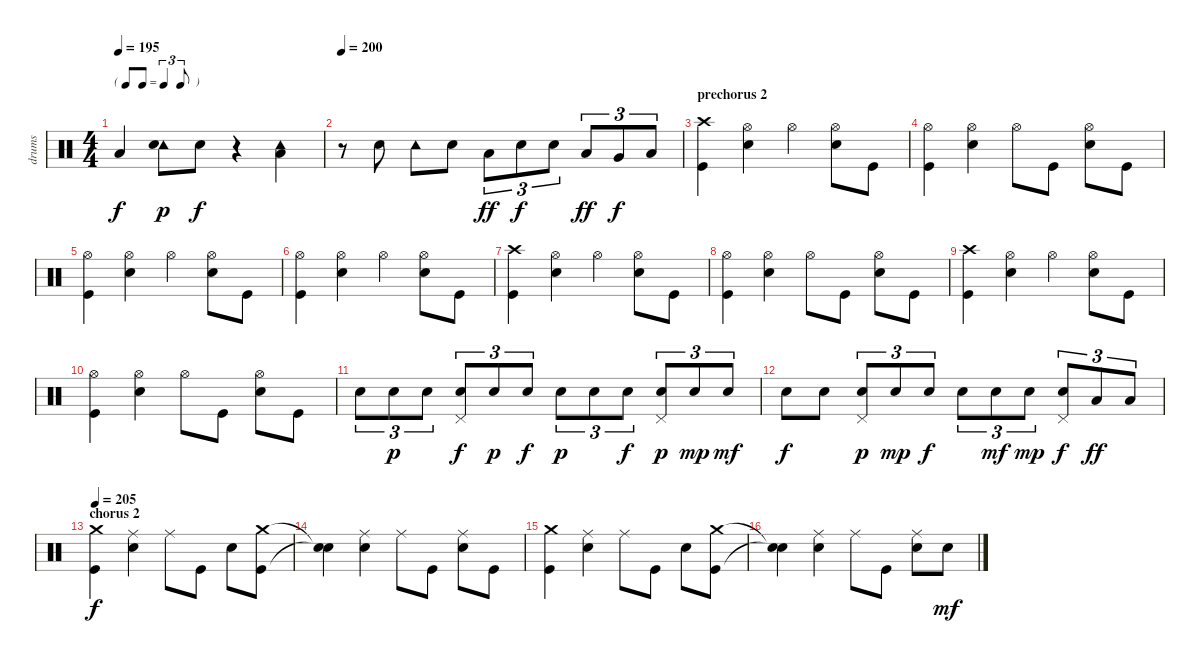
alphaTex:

\track ("drums" "drums") {instrument percussion}
\staff {score}
\articulation defaults
\ts (4 4)
\tf triplet8th
\tempo 195
\clef neutral
\ks c "Low Tom (hit)".4{dy f}
("Tambourine (hit)" "Snare (hit) 2").8{dy p} "Snare (hit) 2".8{dy f} r.4 ("Tambourine (hit)" "Low Tom (hit)").4 |
\tempo 200
r.8 "Snare (hit) 2".8 "Tambourine (hit)".8 "Snare (hit) 2".8 "Low Tom (hit)".8{tu (3 2) dy ff} "Snare (hit) 2".8{tu (3 2) dy f} "Snare (hit) 2".8{tu (3 2)} "Low Tom (hit)".8{tu (3 2) dy ff} "Very Low Tom (hit)".8{tu (3 2) dy f} "Low Floor Tom (hit)".8{tu (3 2)} |
\section ("" "prechorus 2")
("Crash high (hit)" "Kick (hit)").4 ("Hi-Hat (open)" "Snare (hit) 2").4 "Hi-Hat (open)".4 ("Hi-Hat (open)" "Snare (hit) 2").8 "Kick (hit)".8 |
("Hi-Hat (open)" "Kick (hit)").4 ("Hi-Hat (open)" "Snare (hit) 2").4 "Hi-Hat (open)".8 "Kick (hit)".8 ("Hi-Hat (open)" "Snare (hit) 2").8 "Kick (hit)".8 |
("Hi-Hat (open)" "Kick (hit)").4 ("Hi-Hat (open)" "Snare (hit) 2").4 "Hi-Hat (open)".4 ("Hi-Hat (open)" "Snare (hit) 2").8 "Kick (hit)".8 |
("Hi-Hat (open)" "Kick (hit)").4 ("Hi-Hat (open)" "Snare (hit) 2").4 "Hi-Hat (open)".4 ("Hi-Hat (open)" "Snare (hit) 2").8 "Kick (hit)".8 |
("Crash high (hit)" "Kick (hit)").4 ("Hi-Hat (open)" "Snare (hit) 2").4 "Hi-Hat (open)".4 ("Hi-Hat (open)" "Snare (hit) 2").8 "Kick (hit)".8 |
("Hi-Hat (open)" "Kick (hit)").4 ("Hi-Hat (open)" "Snare (hit) 2").4 "Hi-Hat (open)".8 "Kick (hit)".8 ("Hi-Hat (open)" "Snare (hit) 2").8 "Kick (hit)".8 |
("Crash high (hit)" "Kick (hit)").4 ("Hi-Hat (open)" "Snare (hit) 2").4 "Hi-Hat (open)".4 ("Hi-Hat (open)" "Snare (hit) 2").8 "Kick (hit)".8 |
("Hi-Hat (open)" "Kick (hit)").4 ("Hi-Hat (open)" "Snare (hit) 2").4 "Hi-Hat (open)".8 "Kick (hit)".8 ("Hi-Hat (open)" "Snare (hit) 2").8 "Kick (hit)".8 |
"Snare (hit) 2".8{tu (3 2)} "Snare (hit) 2".8{tu (3 2) dy p} "Snare (hit) 2".8{tu (3 2)} ("Pedal Hi-Hat (hit)" "Snare (hit) 2").8{tu (3 2) dy f} "Snare (hit) 2".8{tu (3 2) dy p} "Snare (hit) 2".8{tu (3 2) dy f} "Snare (hit) 2".8{tu (3 2) dy p} "Snare (hit) 2".8{tu (3 2)} "Snare (hit) 2".8{tu (3 2) dy f} ("Pedal Hi-Hat (hit)" "Snare (hit) 2").8{tu (3 2) dy p} "Snare (hit) 2".8{tu (3 2) dy mp} "Snare (hit) 2".8{tu (3 2) dy mf} |
"Snare (hit) 2".8{dy f} "Snare (hit) 2".8 ("Pedal Hi-Hat (hit)" "Snare (hit) 2").8{tu (3 2) dy p} "Snare (hit) 2".8{tu (3 2) dy mp} "Snare (hit) 2".8{tu (3 2) dy f} "Snare (hit) 2".8{tu (3 2)} "Snare (hit) 2".8{tu (3 2) dy mf} "Snare (hit) 2".8{tu (3 2) dy mp} ("Pedal Hi-Hat (hit)" "Snare (hit) 2").8{tu (3 2) dy f} "Low Tom (hit)".8{tu (3 2) dy ff} "Low Tom (hit)".8{tu (3 2)} |
\section ("" "chorus 2")
\tempo 205
("Crash medium (hit)" "Kick (hit)").4{dy f} ("Ride (middle)" "Snare (hit) 2").4 "Ride (middle)".8 "Kick (hit)".8 "Snare (hit) 2".8 ("Crash medium (hit)" "Kick (hit)").8 |
("Snare (hit)"{t} "Snare (hit)"{t}).4 ("Ride (middle)" "Snare (hit) 2").4 "Ride (middle)".8 "Kick (hit)".8 ("Ride (middle)" "Snare (hit) 2").8 "Kick (hit)".8 |
("Crash medium (hit)" "Kick (hit)").4 ("Ride (middle)" "Snare (hit) 2").4 "Ride (middle)".8 "Kick (hit)".8 "Snare (hit) 2".8 ("Crash medium (hit)" "Kick (hit)").8 |
("Snare (hit)"{t} "Snare (hit)"{t}).4 ("Ride (middle)" "Snare (hit) 2").4 "Ride (middle)".8 "Kick (hit)".8 ("Ride (middle)" "Snare (hit) 2").8 "Snare (hit) 2".8{dy mf}
